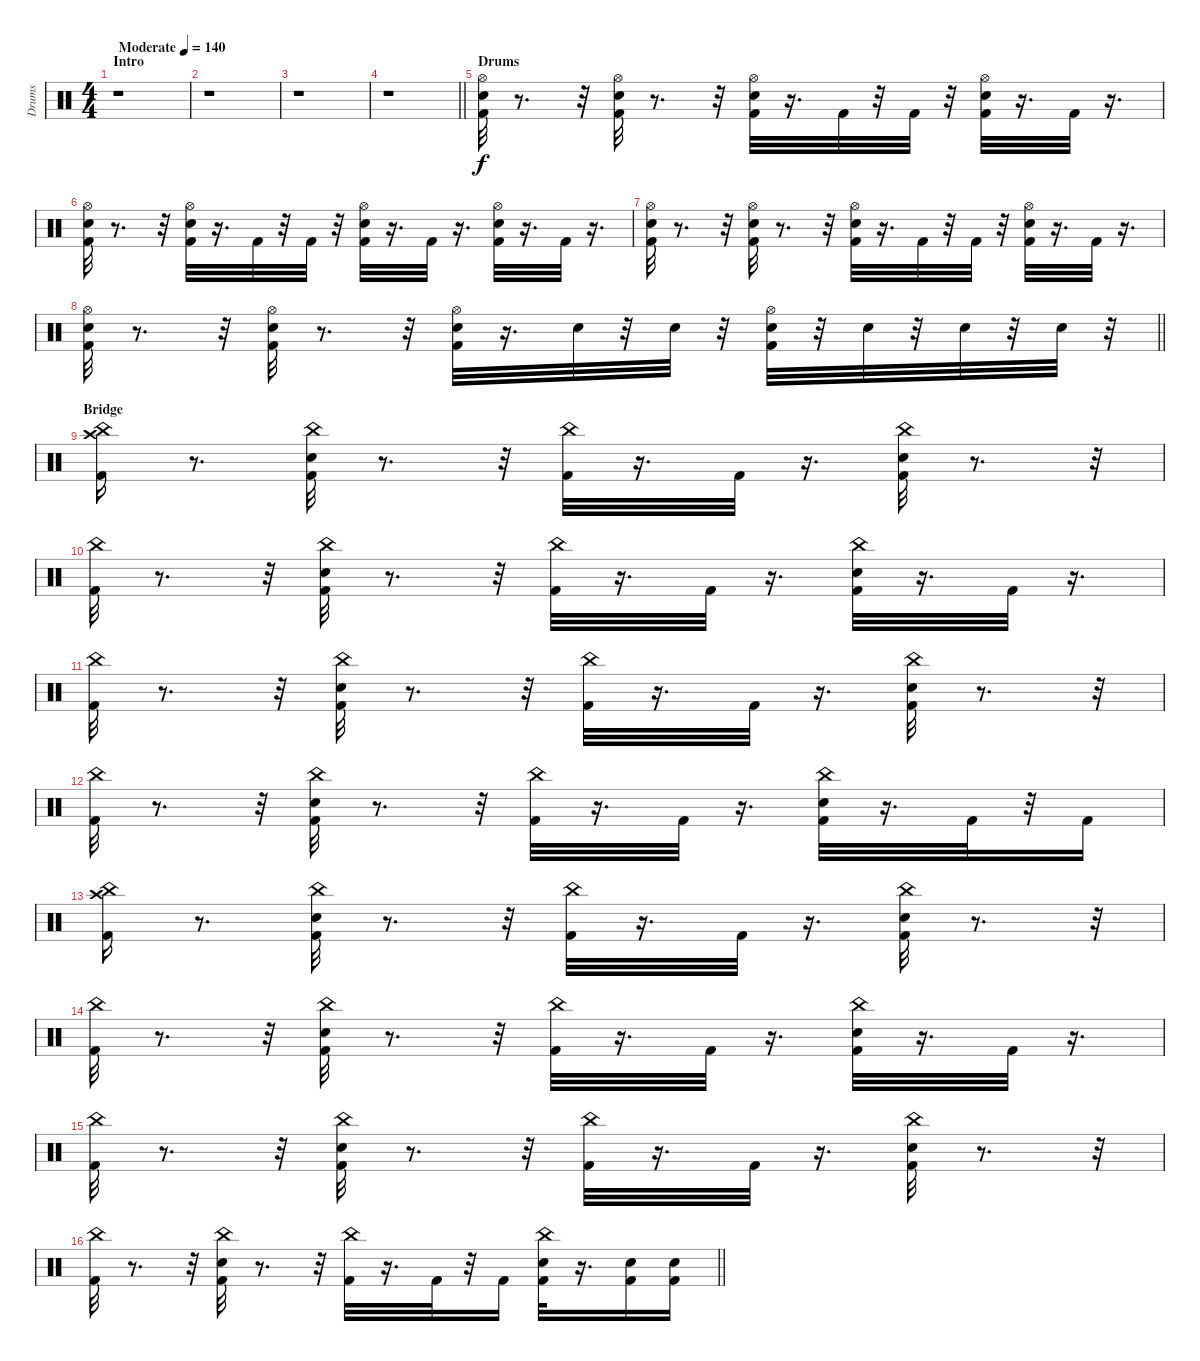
\track ("Drums" "Drums") {instrument percussion}
\staff {score}
\articulation defaults
\ts (4 4)
\section ("" "Intro")
\tempo (140 "Moderate")
\clef neutral
\ks c
r.1{dy f} |
r.1 |
r.1 |
\barLineRight lightlight
r.1 |
\section ("" "Drums")
("Kick (hit) 2" "Snare (hit) 2" "Hi-Hat (open)").32 r.8{d} r.32 ("Kick (hit) 2" "Snare (hit) 2" "Hi-Hat (open)").32 r.8{d} r.32 ("Kick (hit) 2" "Snare (hit) 2" "Hi-Hat (open)").32 r.16{d} "Kick (hit) 2".32 r.32 "Kick (hit) 2".32 r.32 ("Kick (hit) 2" "Snare (hit) 2" "Hi-Hat (open)").32 r.16{d} "Kick (hit) 2".32 r.16{d} |
("Kick (hit) 2" "Snare (hit) 2" "Hi-Hat (open)").32 r.8{d} r.32 ("Kick (hit) 2" "Snare (hit) 2" "Hi-Hat (open)").32 r.16{d} "Kick (hit) 2".32 r.32 "Kick (hit) 2".32 r.32 ("Kick (hit) 2" "Snare (hit) 2" "Hi-Hat (open)").32 r.16{d} "Kick (hit) 2".32 r.16{d} ("Kick (hit) 2" "Snare (hit) 2" "Hi-Hat (open)").32 r.16{d} "Kick (hit) 2".32 r.16{d} |
("Kick (hit) 2" "Snare (hit) 2" "Hi-Hat (open)").32 r.8{d} r.32 ("Kick (hit) 2" "Snare (hit) 2" "Hi-Hat (open)").32 r.8{d} r.32 ("Kick (hit) 2" "Snare (hit) 2" "Hi-Hat (open)").32 r.16{d} "Kick (hit) 2".32 r.32 "Kick (hit) 2".32 r.32 ("Kick (hit) 2" "Snare (hit) 2" "Hi-Hat (open)").32 r.16{d} "Kick (hit) 2".32 r.16{d} |
\barLineRight lightlight
("Kick (hit) 2" "Snare (hit) 2" "Hi-Hat (open)").32 r.8{d} r.32 ("Kick (hit) 2" "Snare (hit) 2" "Hi-Hat (open)").32 r.8{d} r.32 ("Kick (hit) 2" "Snare (hit) 2" "Hi-Hat (open)").32 r.16{d} "Snare (hit) 2".32 r.32 "Snare (hit) 2".32 r.32 ("Kick (hit) 2" "Snare (hit) 2" "Hi-Hat (open)").32 r.32 "Snare (hit) 2".32 r.32 "Snare (hit) 2".32 r.32 "Snare (hit) 2".32 r.32 |
\section ("" "Bridge")
("Kick (hit) 2" "Crash high (hit)" "China (hit)").16 r.8{d} ("Kick (hit) 2" "Snare (hit) 2" "China (hit)").32 r.8{d} r.32 ("Kick (hit) 2" "China (hit)").32 r.16{d} "Kick (hit) 2".32 r.16{d} ("Kick (hit) 2" "Snare (hit) 2" "China (hit)").32 r.8{d} r.32 |
("Kick (hit) 2" "China (hit)").32 r.8{d} r.32 ("Kick (hit) 2" "Snare (hit) 2" "China (hit)").32 r.8{d} r.32 ("Kick (hit) 2" "China (hit)").32 r.16{d} "Kick (hit) 2".32 r.16{d} ("Kick (hit) 2" "Snare (hit) 2" "China (hit)").32 r.16{d} "Kick (hit) 2".32 r.16{d} |
("Kick (hit) 2" "China (hit)").32 r.8{d} r.32 ("Kick (hit) 2" "Snare (hit) 2" "China (hit)").32 r.8{d} r.32 ("Kick (hit) 2" "China (hit)").32 r.16{d} "Kick (hit) 2".32 r.16{d} ("Kick (hit) 2" "Snare (hit) 2" "China (hit)").32 r.8{d} r.32 |
("Kick (hit) 2" "China (hit)").32 r.8{d} r.32 ("Kick (hit) 2" "Snare (hit) 2" "China (hit)").32 r.8{d} r.32 ("Kick (hit) 2" "China (hit)").32 r.16{d} "Kick (hit) 2".32 r.16{d} ("Kick (hit) 2" "Snare (hit) 2" "China (hit)").32 r.16{d} "Kick (hit) 2".32 r.32 "Kick (hit) 2".16 |
("Kick (hit) 2" "Crash high (hit)" "China (hit)").16 r.8{d} ("Kick (hit) 2" "Snare (hit) 2" "China (hit)").32 r.8{d} r.32 ("Kick (hit) 2" "China (hit)").32 r.16{d} "Kick (hit) 2".32 r.16{d} ("Kick (hit) 2" "Snare (hit) 2" "China (hit)").32 r.8{d} r.32 |
("Kick (hit) 2" "China (hit)").32 r.8{d} r.32 ("Kick (hit) 2" "Snare (hit) 2" "China (hit)").32 r.8{d} r.32 ("Kick (hit) 2" "China (hit)").32 r.16{d} "Kick (hit) 2".32 r.16{d} ("Kick (hit) 2" "Snare (hit) 2" "China (hit)").32 r.16{d} "Kick (hit) 2".32 r.16{d} |
("Kick (hit) 2" "China (hit)").32 r.8{d} r.32 ("Kick (hit) 2" "Snare (hit) 2" "China (hit)").32 r.8{d} r.32 ("Kick (hit) 2" "China (hit)").32 r.16{d} "Kick (hit) 2".32 r.16{d} ("Kick (hit) 2" "Snare (hit) 2" "China (hit)").32 r.8{d} r.32 |
\barLineRight lightlight
("Kick (hit) 2" "China (hit)").32 r.8{d} r.32 ("Kick (hit) 2" "Snare (hit) 2" "China (hit)").32 r.8{d} r.32 ("Kick (hit) 2" "China (hit)").32 r.16{d} "Kick (hit) 2".32 r.32 "Kick (hit) 2".16 ("Kick (hit) 2" "Snare (hit) 2" "China (hit)").32 r.16{d} ("Kick (hit) 2" "Snare (hit) 2").16 ("Kick (hit) 2" "Snare (hit) 2").16
